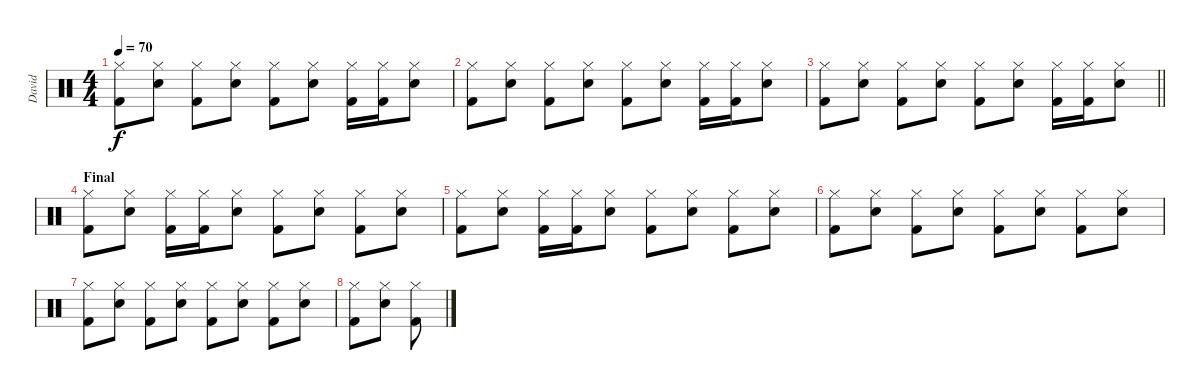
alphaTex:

\track ("David" "David") {instrument percussion}
\staff {score}
\articulation defaults
\ts (4 4)
\tempo 70
\clef neutral
\ks c
("Kick (hit) 2" "Hi-Hat (closed)").8{dy f} ("Snare (hit) 2" "Hi-Hat (closed)").8 ("Kick (hit) 2" "Hi-Hat (closed)").8 ("Snare (hit) 2" "Hi-Hat (closed)").8 ("Kick (hit) 2" "Hi-Hat (closed)").8 ("Snare (hit) 2" "Hi-Hat (closed)").8 ("Kick (hit) 2" "Hi-Hat (closed)").16 ("Kick (hit) 2" "Hi-Hat (closed)").16 ("Snare (hit) 2" "Hi-Hat (closed)").8 |
("Kick (hit) 2" "Hi-Hat (closed)").8 ("Snare (hit) 2" "Hi-Hat (closed)").8 ("Kick (hit) 2" "Hi-Hat (closed)").8 ("Snare (hit) 2" "Hi-Hat (closed)").8 ("Kick (hit) 2" "Hi-Hat (closed)").8 ("Snare (hit) 2" "Hi-Hat (closed)").8 ("Kick (hit) 2" "Hi-Hat (closed)").16 ("Kick (hit) 2" "Hi-Hat (closed)").16 ("Snare (hit) 2" "Hi-Hat (closed)").8 |
\barLineRight lightlight
("Kick (hit) 2" "Hi-Hat (closed)").8 ("Snare (hit) 2" "Hi-Hat (closed)").8 ("Kick (hit) 2" "Hi-Hat (closed)").8 ("Snare (hit) 2" "Hi-Hat (closed)").8 ("Kick (hit) 2" "Hi-Hat (closed)").8 ("Snare (hit) 2" "Hi-Hat (closed)").8 ("Kick (hit) 2" "Hi-Hat (closed)").16 ("Kick (hit) 2" "Hi-Hat (closed)").16 ("Snare (hit) 2" "Hi-Hat (closed)").8 |
\section ("" "Final")
("Kick (hit) 2" "Hi-Hat (closed)").8{volume 0} ("Snare (hit) 2" "Hi-Hat (closed)").8 ("Kick (hit) 2" "Hi-Hat (closed)").16 ("Kick (hit) 2" "Hi-Hat (closed)").16 ("Snare (hit) 2" "Hi-Hat (closed)").8 ("Kick (hit) 2" "Hi-Hat (closed)").8 ("Snare (hit) 2" "Hi-Hat (closed)").8 ("Kick (hit) 2" "Hi-Hat (closed)").8 ("Snare (hit) 2" "Hi-Hat (closed)").8 |
("Kick (hit) 2" "Hi-Hat (closed)").8 ("Snare (hit) 2" "Hi-Hat (closed)").8 ("Kick (hit) 2" "Hi-Hat (closed)").16 ("Kick (hit) 2" "Hi-Hat (closed)").16 ("Snare (hit) 2" "Hi-Hat (closed)").8 ("Kick (hit) 2" "Hi-Hat (closed)").8 ("Snare (hit) 2" "Hi-Hat (closed)").8 ("Kick (hit) 2" "Hi-Hat (closed)").8 ("Snare (hit) 2" "Hi-Hat (closed)").8 |
("Kick (hit) 2" "Hi-Hat (closed)").8 ("Snare (hit) 2" "Hi-Hat (closed)").8 ("Kick (hit) 2" "Hi-Hat (closed)").8 ("Snare (hit) 2" "Hi-Hat (closed)").8 ("Kick (hit) 2" "Hi-Hat (closed)").8 ("Snare (hit) 2" "Hi-Hat (closed)").8 ("Kick (hit) 2" "Hi-Hat (closed)").8 ("Snare (hit) 2" "Hi-Hat (closed)").8 |
("Kick (hit) 2" "Hi-Hat (closed)").8 ("Snare (hit) 2" "Hi-Hat (closed)").8 ("Kick (hit) 2" "Hi-Hat (closed)").8 ("Snare (hit) 2" "Hi-Hat (closed)").8 ("Kick (hit) 2" "Hi-Hat (closed)").8 ("Snare (hit) 2" "Hi-Hat (closed)").8 ("Kick (hit) 2" "Hi-Hat (closed)").8 ("Snare (hit) 2" "Hi-Hat (closed)").8 |
("Kick (hit) 2" "Hi-Hat (closed)").8 ("Snare (hit) 2" "Hi-Hat (closed)").8 ("Kick (hit) 2" "Hi-Hat (closed)").8
